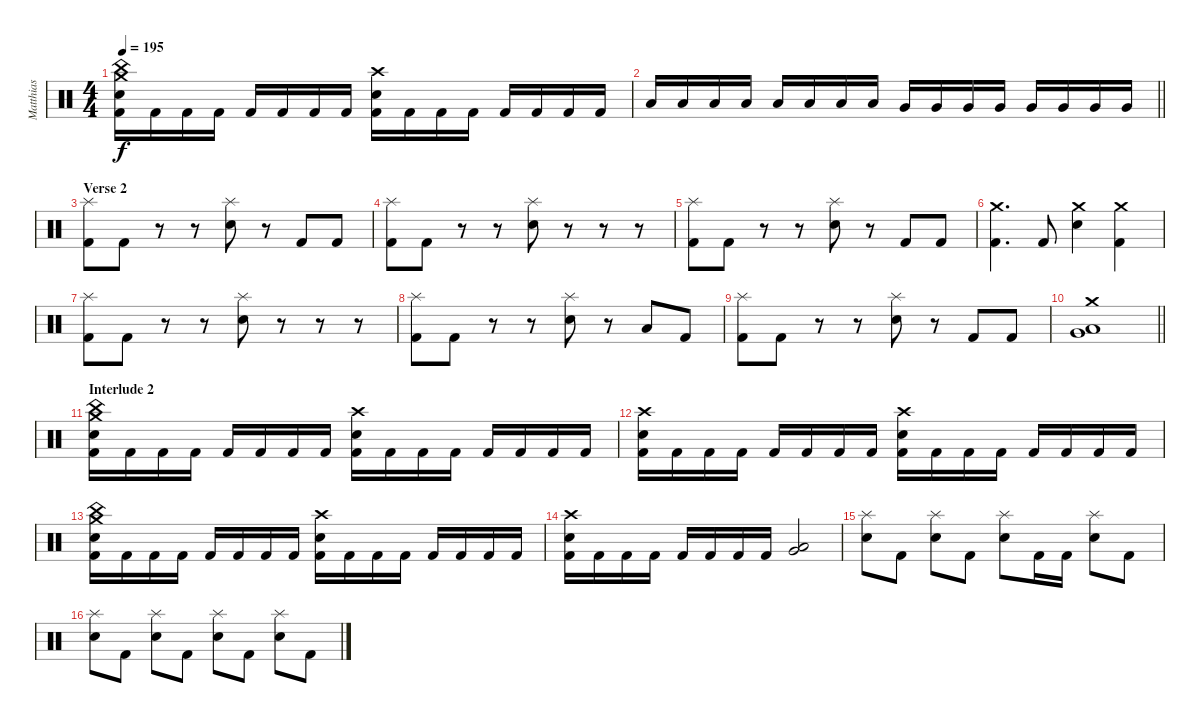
\track ("Matthias" "Matthias") {instrument percussion}
\staff {score}
\articulation defaults
\ts (4 4)
\tempo 195
\clef neutral
\ks c
("Crash medium (hit)" "China (hit)" "Electric Snare (hit)" "Kick (hit) 2").16{dy f} "Kick (hit) 2".16 "Kick (hit) 2".16 "Kick (hit) 2".16 "Kick (hit) 2".16 "Kick (hit) 2".16 "Kick (hit) 2".16 "Kick (hit) 2".16 ("Crash high (hit)" "Electric Snare (hit)" "Kick (hit) 2").16 "Kick (hit) 2".16 "Kick (hit) 2".16 "Kick (hit) 2".16 "Kick (hit) 2".16 "Kick (hit) 2".16 "Kick (hit) 2".16 "Kick (hit) 2".16 |
\barLineRight lightlight "Low Tom (hit)".16 "Low Tom (hit)".16 "Low Tom (hit)".16 "Low Tom (hit)".16 "Low Tom (hit)".16 "Low Tom (hit)".16 "Low Tom (hit)".16 "Low Tom (hit)".16 "Very Low Tom (hit)".16 "Very Low Tom (hit)".16 "Very Low Tom (hit)".16 "Very Low Tom (hit)".16 "Very Low Tom (hit)".16 "Very Low Tom (hit)".16 "Very Low Tom (hit)".16 "Very Low Tom (hit)".16
|
\section ("" "Verse 2")
("Splash (hit)" "Kick (hit) 2").8 "Kick (hit) 2".8 r.8 r.8 ("Splash (hit)" "Electric Snare (hit)").8 r.8 "Kick (hit) 2".8 "Kick (hit) 2".8 |
("Splash (hit)" "Kick (hit) 2").8 "Kick (hit) 2".8 r.8 r.8 ("Splash (hit)" "Electric Snare (hit)").8 r.8 r.8 r.8 |
("Splash (hit)" "Kick (hit) 2").8 "Kick (hit) 2".8 r.8 r.8 ("Splash (hit)" "Electric Snare (hit)").8 r.8 "Kick (hit) 2".8 "Kick (hit) 2".8 |
("Crash medium (hit)" "Kick (hit) 2").4{d} "Kick (hit) 2".8 ("Crash medium (hit)" "Electric Snare (hit)").4 ("Crash medium (hit)" "Kick (hit) 2").4 |
("Splash (hit)" "Kick (hit) 2").8 "Kick (hit) 2".8 r.8 r.8 ("Splash (hit)" "Electric Snare (hit)").8 r.8 r.8 r.8 |
("Splash (hit)" "Kick (hit) 2").8 "Kick (hit) 2".8 r.8 r.8 ("Splash (hit)" "Electric Snare (hit)").8 r.8 "Low Tom (hit)".8 "Kick (hit) 2".8 |
("Splash (hit)" "Kick (hit) 2").8 "Kick (hit) 2".8 r.8 r.8 ("Splash (hit)" "Electric Snare (hit)").8 r.8 "Kick (hit) 2".8 "Kick (hit) 2".8 |
\barLineRight lightlight
("Crash medium (hit)" "Low Tom (hit)" "Very Low Tom (hit)").1 |
\section ("" "Interlude 2")
("Crash medium (hit)" "China (hit)" "Electric Snare (hit)" "Kick (hit) 2").16 "Kick (hit) 2".16 "Kick (hit) 2".16 "Kick (hit) 2".16 "Kick (hit) 2".16 "Kick (hit) 2".16 "Kick (hit) 2".16 "Kick (hit) 2".16 ("Crash high (hit)" "Electric Snare (hit)" "Kick (hit) 2").16 "Kick (hit) 2".16 "Kick (hit) 2".16 "Kick (hit) 2".16 "Kick (hit) 2".16 "Kick (hit) 2".16 "Kick (hit) 2".16 "Kick (hit) 2".16 |
("Crash high (hit)" "Electric Snare (hit)" "Kick (hit) 2").16 "Kick (hit) 2".16 "Kick (hit) 2".16 "Kick (hit) 2".16 "Kick (hit) 2".16 "Kick (hit) 2".16 "Kick (hit) 2".16 "Kick (hit) 2".16 ("Crash high (hit)" "Electric Snare (hit)" "Kick (hit) 2").16 "Kick (hit) 2".16 "Kick (hit) 2".16 "Kick (hit) 2".16 "Kick (hit) 2".16 "Kick (hit) 2".16 "Kick (hit) 2".16 "Kick (hit) 2".16 |
("Crash medium (hit)" "China (hit)" "Electric Snare (hit)" "Kick (hit) 2").16 "Kick (hit) 2".16 "Kick (hit) 2".16 "Kick (hit) 2".16 "Kick (hit) 2".16 "Kick (hit) 2".16 "Kick (hit) 2".16 "Kick (hit) 2".16 ("Crash high (hit)" "Electric Snare (hit)" "Kick (hit) 2").16 "Kick (hit) 2".16 "Kick (hit) 2".16 "Kick (hit) 2".16 "Kick (hit) 2".16 "Kick (hit) 2".16 "Kick (hit) 2".16 "Kick (hit) 2".16 |
("Crash high (hit)" "Electric Snare (hit)" "Kick (hit) 2").16 "Kick (hit) 2".16 "Kick (hit) 2".16 "Kick (hit) 2".16 "Kick (hit) 2".16 "Kick (hit) 2".16 "Kick (hit) 2".16 "Kick (hit) 2".16 ("Low Tom (hit)" "Very Low Tom (hit)").2 |
("Splash (hit)" "Electric Snare (hit)").8 "Kick (hit) 2".8 ("Splash (hit)" "Electric Snare (hit)").8 "Kick (hit) 2".8 ("Splash (hit)" "Electric Snare (hit)").8 "Kick (hit) 2".16 "Kick (hit) 2".16 ("Splash (hit)" "Electric Snare (hit)").8 "Kick (hit) 2".8 |
("Splash (hit)" "Electric Snare (hit)").8 "Kick (hit) 2".8 ("Splash (hit)" "Electric Snare (hit)").8 "Kick (hit) 2".8 ("Splash (hit)" "Electric Snare (hit)").8 "Kick (hit) 2".8 ("Splash (hit)" "Electric Snare (hit)").8 "Kick (hit) 2".8
